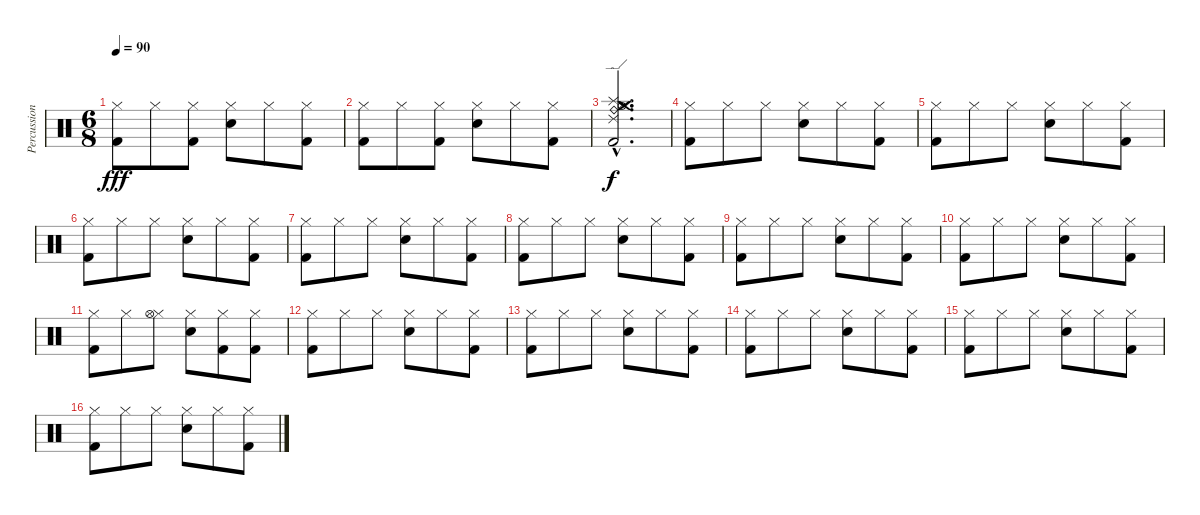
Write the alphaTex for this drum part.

\track ("Percussion" "Percussion") {instrument percussion}
\staff {score}
\articulation defaults
\ts (6 8)
\tempo 90
\clef neutral
\ks c
("Hi-Hat (closed)" "Kick (hit) 2").8{dy fff} "Hi-Hat (closed)".8 ("Hi-Hat (closed)" "Kick (hit) 2").8 ("Hi-Hat (closed)" "Snare (hit) 2").8 "Hi-Hat (closed)".8 ("Hi-Hat (closed)" "Kick (hit) 2").8 |
("Hi-Hat (closed)" "Kick (hit) 2").8 "Hi-Hat (closed)".8 ("Hi-Hat (closed)" "Kick (hit) 2").8 ("Hi-Hat (closed)" "Snare (hit) 2").8 "Hi-Hat (closed)".8 ("Hi-Hat (closed)" "Kick (hit) 2").8 |
("Hi-Hat (open)"{hac} "Ride (bell)"{hac} "Splash (hit)"{hac} "Crash medium (hit)"{hac} "Ride (edge) 2"{hac} "Kick (hit) 2"{hac}).2{d dy f} |
("Hi-Hat (closed)" "Kick (hit) 2").8 "Hi-Hat (closed)".8 "Hi-Hat (closed)".8 ("Hi-Hat (closed)" "Snare (hit) 2").8 "Hi-Hat (closed)".8 ("Hi-Hat (closed)" "Kick (hit) 2").8 |
("Hi-Hat (closed)" "Kick (hit) 2").8 "Hi-Hat (closed)".8 "Hi-Hat (closed)".8 ("Hi-Hat (closed)" "Snare (hit) 2").8 "Hi-Hat (closed)".8 ("Hi-Hat (closed)" "Kick (hit) 2").8 |
("Hi-Hat (closed)" "Kick (hit) 2").8 "Hi-Hat (closed)".8 "Hi-Hat (closed)".8 ("Hi-Hat (closed)" "Snare (hit) 2").8 "Hi-Hat (closed)".8 ("Hi-Hat (closed)" "Kick (hit) 2").8 |
("Hi-Hat (closed)" "Kick (hit) 2").8 "Hi-Hat (closed)".8 "Hi-Hat (closed)".8 ("Hi-Hat (closed)" "Snare (hit) 2").8 "Hi-Hat (closed)".8 ("Hi-Hat (closed)" "Kick (hit) 2").8 |
("Hi-Hat (closed)" "Kick (hit) 2").8 "Hi-Hat (closed)".8 "Hi-Hat (closed)".8 ("Hi-Hat (closed)" "Snare (hit) 2").8 "Hi-Hat (closed)".8 ("Hi-Hat (closed)" "Kick (hit) 2").8 |
("Hi-Hat (closed)" "Kick (hit) 2").8 "Hi-Hat (closed)".8 "Hi-Hat (closed)".8 ("Hi-Hat (closed)" "Snare (hit) 2").8 "Hi-Hat (closed)".8 ("Hi-Hat (closed)" "Kick (hit) 2").8 |
("Hi-Hat (closed)" "Kick (hit) 2").8 "Hi-Hat (closed)".8 "Hi-Hat (closed)".8 ("Hi-Hat (closed)" "Snare (hit) 2").8 "Hi-Hat (closed)".8 ("Hi-Hat (closed)" "Kick (hit) 2").8 |
("Hi-Hat (closed)" "Kick (hit) 2").8 "Hi-Hat (closed)".8 ("Hi-Hat (closed)" "Hi-Hat (open)").8 ("Hi-Hat (closed)" "Snare (hit) 2").8 ("Hi-Hat (closed)" "Kick (hit) 2").8 ("Hi-Hat (closed)" "Kick (hit) 2").8 |
("Hi-Hat (closed)" "Kick (hit) 2").8 "Hi-Hat (closed)".8 "Hi-Hat (closed)".8 ("Hi-Hat (closed)" "Snare (hit) 2").8 "Hi-Hat (closed)".8 ("Hi-Hat (closed)" "Kick (hit) 2").8 |
("Hi-Hat (closed)" "Kick (hit) 2").8 "Hi-Hat (closed)".8 "Hi-Hat (closed)".8 ("Hi-Hat (closed)" "Snare (hit) 2").8 "Hi-Hat (closed)".8 ("Hi-Hat (closed)" "Kick (hit) 2").8 |
("Hi-Hat (closed)" "Kick (hit) 2").8 "Hi-Hat (closed)".8 "Hi-Hat (closed)".8 ("Hi-Hat (closed)" "Snare (hit) 2").8 "Hi-Hat (closed)".8 ("Hi-Hat (closed)" "Kick (hit) 2").8 |
("Hi-Hat (closed)" "Kick (hit) 2").8 "Hi-Hat (closed)".8 "Hi-Hat (closed)".8 ("Hi-Hat (closed)" "Snare (hit) 2").8 "Hi-Hat (closed)".8 ("Hi-Hat (closed)" "Kick (hit) 2").8 |
("Hi-Hat (closed)" "Kick (hit) 2").8 "Hi-Hat (closed)".8 "Hi-Hat (closed)".8 ("Hi-Hat (closed)" "Snare (hit) 2").8 "Hi-Hat (closed)".8 ("Hi-Hat (closed)" "Kick (hit) 2").8
